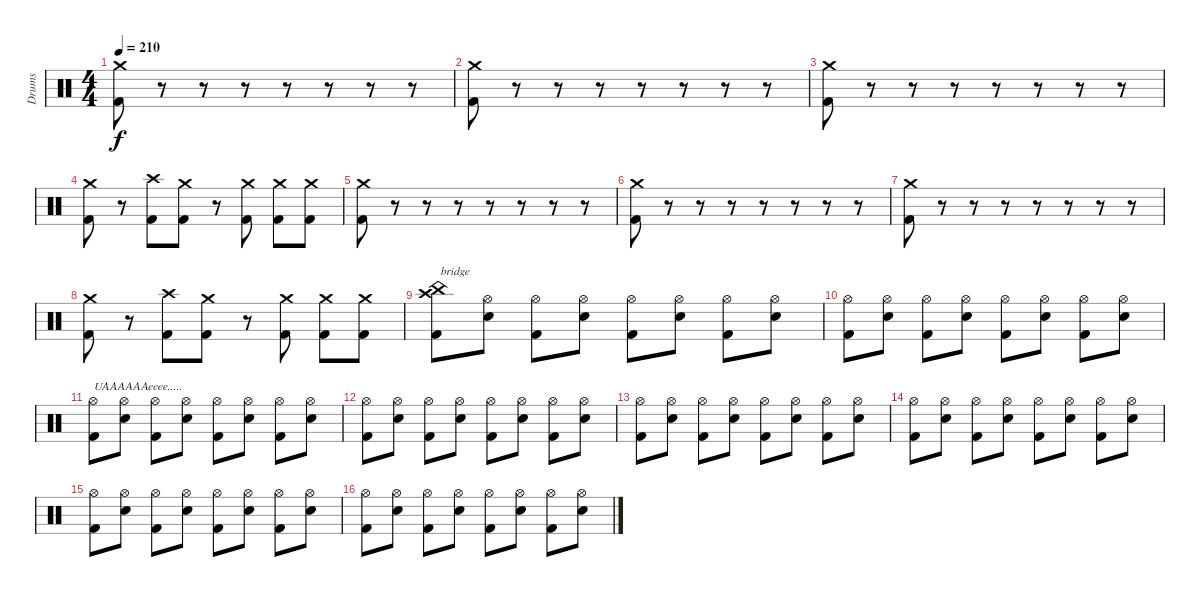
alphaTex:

\track ("Drums" "Drums") {instrument percussion}
\staff {score}
\articulation defaults
\ts (4 4)
\tempo 210
\clef neutral
\ks c
("Kick (hit) 2" "Crash medium (hit)").8{dy f} r.8 r.8 r.8 r.8 r.8 r.8 r.8 |
("Kick (hit) 2" "Crash medium (hit)").8 r.8 r.8 r.8 r.8 r.8 r.8 r.8 |
("Crash medium (hit)" "Kick (hit) 2").8 r.8 r.8 r.8 r.8 r.8 r.8 r.8 |
("Kick (hit) 2" "Crash medium (hit)").8 r.8 ("Kick (hit) 2" "Crash high (hit)").8 ("Kick (hit) 2" "Crash medium (hit)").8 r.8 ("Kick (hit) 2" "Crash medium (hit)").8 ("Kick (hit) 2" "Crash medium (hit)").8 ("Kick (hit) 2" "Crash medium (hit)").8 |
("Kick (hit) 2" "Crash medium (hit)").8 r.8 r.8 r.8 r.8 r.8 r.8 r.8 |
("Kick (hit) 2" "Crash medium (hit)").8 r.8 r.8 r.8 r.8 r.8 r.8 r.8 |
("Crash medium (hit)" "Kick (hit) 2").8 r.8 r.8 r.8 r.8 r.8 r.8 r.8 |
("Kick (hit) 2" "Crash medium (hit)").8 r.8 ("Kick (hit) 2" "Crash high (hit)").8 ("Kick (hit) 2" "Crash medium (hit)").8 r.8 ("Kick (hit) 2" "Crash medium (hit)").8 ("Kick (hit) 2" "Crash medium (hit)").8 ("Kick (hit) 2" "Crash medium (hit)").8 |
("Kick (hit) 2" "China (hit)" "Crash high (hit)").8{txt "bridge"} ("Snare (hit) 2" "Hi-Hat (open)").8 ("Kick (hit) 2" "Hi-Hat (open)").8 ("Snare (hit) 2" "Hi-Hat (open)").8 ("Kick (hit) 2" "Hi-Hat (open)").8 ("Snare (hit) 2" "Hi-Hat (open)").8 ("Kick (hit) 2" "Hi-Hat (open)").8 ("Snare (hit) 2" "Hi-Hat (open)").8 |
("Kick (hit) 2" "Hi-Hat (open)").8 ("Snare (hit) 2" "Hi-Hat (open)").8 ("Kick (hit) 2" "Hi-Hat (open)").8 ("Snare (hit) 2" "Hi-Hat (open)").8 ("Kick (hit) 2" "Hi-Hat (open)").8 ("Snare (hit) 2" "Hi-Hat (open)").8 ("Kick (hit) 2" "Hi-Hat (open)").8 ("Snare (hit) 2" "Hi-Hat (open)").8 |
("Kick (hit) 2" "Hi-Hat (open)").8{txt "UAAAAAAeeee....."} ("Snare (hit) 2" "Hi-Hat (open)").8 ("Kick (hit) 2" "Hi-Hat (open)").8 ("Snare (hit) 2" "Hi-Hat (open)").8 ("Kick (hit) 2" "Hi-Hat (open)").8 ("Snare (hit) 2" "Hi-Hat (open)").8 ("Kick (hit) 2" "Hi-Hat (open)").8 ("Snare (hit) 2" "Hi-Hat (open)").8 |
("Kick (hit) 2" "Hi-Hat (open)").8 ("Snare (hit) 2" "Hi-Hat (open)").8 ("Kick (hit) 2" "Hi-Hat (open)").8 ("Snare (hit) 2" "Hi-Hat (open)").8 ("Kick (hit) 2" "Hi-Hat (open)").8 ("Snare (hit) 2" "Hi-Hat (open)").8 ("Kick (hit) 2" "Hi-Hat (open)").8 ("Snare (hit) 2" "Hi-Hat (open)").8 |
("Kick (hit) 2" "Hi-Hat (open)").8 ("Snare (hit) 2" "Hi-Hat (open)").8 ("Kick (hit) 2" "Hi-Hat (open)").8 ("Snare (hit) 2" "Hi-Hat (open)").8 ("Kick (hit) 2" "Hi-Hat (open)").8 ("Snare (hit) 2" "Hi-Hat (open)").8 ("Kick (hit) 2" "Hi-Hat (open)").8 ("Snare (hit) 2" "Hi-Hat (open)").8 |
("Kick (hit) 2" "Hi-Hat (open)").8 ("Snare (hit) 2" "Hi-Hat (open)").8 ("Kick (hit) 2" "Hi-Hat (open)").8 ("Snare (hit) 2" "Hi-Hat (open)").8 ("Kick (hit) 2" "Hi-Hat (open)").8 ("Snare (hit) 2" "Hi-Hat (open)").8 ("Kick (hit) 2" "Hi-Hat (open)").8 ("Snare (hit) 2" "Hi-Hat (open)").8 |
("Kick (hit) 2" "Hi-Hat (open)").8 ("Snare (hit) 2" "Hi-Hat (open)").8 ("Kick (hit) 2" "Hi-Hat (open)").8 ("Snare (hit) 2" "Hi-Hat (open)").8 ("Kick (hit) 2" "Hi-Hat (open)").8 ("Snare (hit) 2" "Hi-Hat (open)").8 ("Kick (hit) 2" "Hi-Hat (open)").8 ("Snare (hit) 2" "Hi-Hat (open)").8 |
("Kick (hit) 2" "Hi-Hat (open)").8 ("Snare (hit) 2" "Hi-Hat (open)").8 ("Kick (hit) 2" "Hi-Hat (open)").8 ("Snare (hit) 2" "Hi-Hat (open)").8 ("Kick (hit) 2" "Hi-Hat (open)").8 ("Snare (hit) 2" "Hi-Hat (open)").8 ("Kick (hit) 2" "Hi-Hat (open)").8 ("Snare (hit) 2" "Hi-Hat (open)").8
